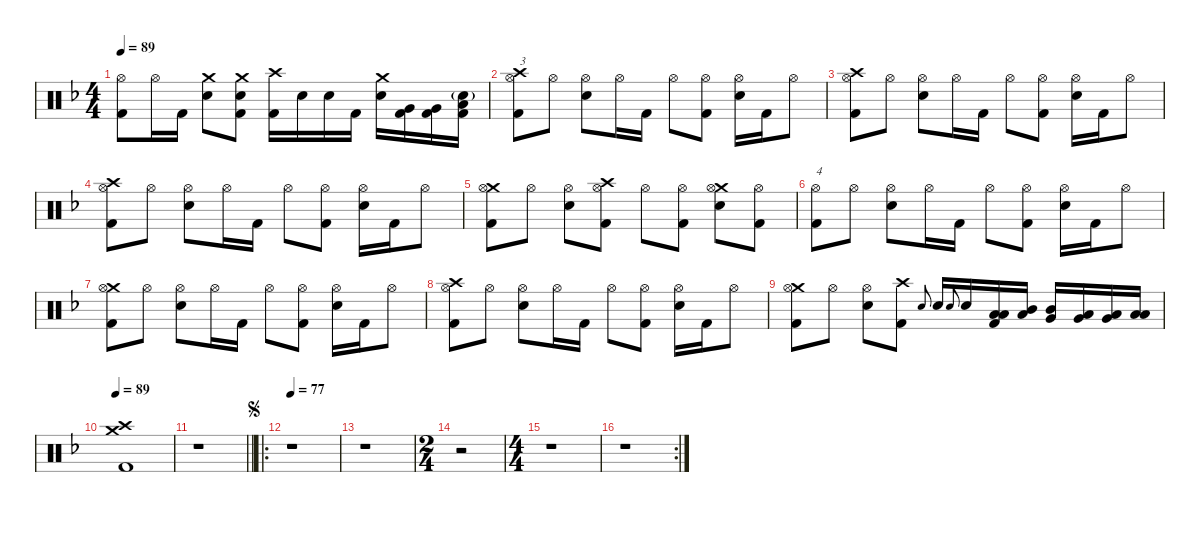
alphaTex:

\defaultSystemsLayout 4
\hideDynamics
\bracketExtendMode nobrackets
\singleTrackTrackNamePolicy hidden
\multiTrackTrackNamePolicy hidden
\firstSystemTrackNameMode fullname
\firstSystemTrackNameOrientation horizontal
\otherSystemsTrackNameOrientation horizontal
\track ("Martin Lopez - Drums" "drm.") {instrument percussion}
\staff {score}
\articulation defaults
\ts (4 4)
\tempo 89
\clef neutral
\ks f
("Hi-Hat (open)"{acc forcenatural} "Kick (hit) 2"{acc forcenatural}).8{dy f beam Down} "Hi-Hat (open)"{acc forcenatural}.16{beam Down} "Kick (hit) 2"{acc forcenatural}.16{beam Down} ("Crash medium (hit)"{acc forcenatural} "Snare (hit) 2"{acc forcenatural}).8{beam Down} ("Crash medium (hit)"{acc forcenatural} "Snare (hit) 2"{acc forcenatural} "Kick (hit) 2"{acc forcenatural}).8{beam Down} ("Crash high (hit)"{acc forcenatural} "Kick (hit) 2"{acc forcenatural}).16{beam Down} "Snare (hit) 2"{acc forcenatural}.16{beam Down} "Snare (hit) 2"{acc forcenatural}.16{beam Down} "Kick (hit) 2"{acc forcenatural}.16{beam Down} ("Crash medium (hit)"{acc forcenatural} "Snare (hit) 2"{acc forcenatural}).16{beam Down} ("Very Low Tom (hit)"{acc forcenatural} "Kick (hit) 2"{acc forcenatural}).16{beam Down} ("Very Low Tom (hit)"{acc forcenatural} "Kick (hit) 2"{acc forcenatural}).16{beam Down} ("Low Floor Tom (hit)"{acc forcenatural} "Snare (hit) 2"{g acc forcenatural} "Kick (hit) 2"{acc forcenatural}).16{beam Down} |
("Crash high (hit)"{acc forcenatural} "Hi-Hat (open)"{acc forcenatural} "Kick (hit) 2"{acc forcenatural}).8{txt "3" beam Down} "Hi-Hat (open)"{acc forcenatural}.8{beam Down} ("Hi-Hat (open)"{acc forcenatural} "Snare (hit) 2"{acc forcenatural}).8{beam Down} "Hi-Hat (open)"{acc forcenatural}.16{beam Down} "Kick (hit) 2"{acc forcenatural}.16{beam Down} "Hi-Hat (open)"{acc forcenatural}.8{beam Down} ("Hi-Hat (open)"{acc forcenatural} "Kick (hit) 2"{acc forcenatural}).8{beam Down} ("Hi-Hat (open)"{acc forcenatural} "Snare (hit) 2"{acc forcenatural}).16{beam Down} "Kick (hit) 2"{acc forcenatural}.16{beam Down} "Hi-Hat (open)"{acc forcenatural}.8{beam Down} |
("Crash high (hit)"{acc forcenatural} "Hi-Hat (open)"{acc forcenatural} "Kick (hit) 2"{acc forcenatural}).8{beam Down} "Hi-Hat (open)"{acc forcenatural}.8{beam Down} ("Hi-Hat (open)"{acc forcenatural} "Snare (hit) 2"{acc forcenatural}).8{beam Down} "Hi-Hat (open)"{acc forcenatural}.16{beam Down} "Kick (hit) 2"{acc forcenatural}.16{beam Down} "Hi-Hat (open)"{acc forcenatural}.8{beam Down} ("Hi-Hat (open)"{acc forcenatural} "Kick (hit) 2"{acc forcenatural}).8{beam Down} ("Hi-Hat (open)"{acc forcenatural} "Snare (hit) 2"{acc forcenatural}).16{beam Down} "Kick (hit) 2"{acc forcenatural}.16{beam Down} "Hi-Hat (open)"{acc forcenatural}.8{beam Down} |
("Crash high (hit)"{acc forcenatural} "Hi-Hat (open)"{acc forcenatural} "Kick (hit) 2"{acc forcenatural}).8{beam Down} "Hi-Hat (open)"{acc forcenatural}.8{beam Down} ("Hi-Hat (open)"{acc forcenatural} "Snare (hit) 2"{acc forcenatural}).8{beam Down} "Hi-Hat (open)"{acc forcenatural}.16{beam Down} "Kick (hit) 2"{acc forcenatural}.16{beam Down} "Hi-Hat (open)"{acc forcenatural}.8{beam Down} ("Hi-Hat (open)"{acc forcenatural} "Kick (hit) 2"{acc forcenatural}).8{beam Down} ("Hi-Hat (open)"{acc forcenatural} "Snare (hit) 2"{acc forcenatural}).16{beam Down} "Kick (hit) 2"{acc forcenatural}.16{beam Down} "Hi-Hat (open)"{acc forcenatural}.8{beam Down} |
("Crash medium (hit)"{acc forcenatural} "Hi-Hat (open)"{acc forcenatural} "Kick (hit) 2"{acc forcenatural}).8{beam Down} "Hi-Hat (open)"{acc forcenatural}.8{beam Down} ("Hi-Hat (open)"{acc forcenatural} "Snare (hit) 2"{acc forcenatural}).8{beam Down} ("Crash high (hit)"{acc forcenatural} "Hi-Hat (open)"{acc forcenatural} "Kick (hit) 2"{acc forcenatural}).8{beam Down} "Hi-Hat (open)"{acc forcenatural}.8{beam Down} ("Hi-Hat (open)"{acc forcenatural} "Kick (hit) 2"{acc forcenatural}).8{beam Down} ("Crash medium (hit)"{acc forcenatural} "Hi-Hat (open)"{acc forcenatural} "Snare (hit) 2"{acc forcenatural}).8{beam Down} ("Hi-Hat (open)"{acc forcenatural} "Kick (hit) 2"{acc forcenatural}).8{beam Down} |
("Hi-Hat (open)"{acc forcenatural} "Kick (hit) 2"{acc forcenatural}).8{txt "4" beam Down} "Hi-Hat (open)"{acc forcenatural}.8{beam Down} ("Hi-Hat (open)"{acc forcenatural} "Snare (hit) 2"{acc forcenatural}).8{beam Down} "Hi-Hat (open)"{acc forcenatural}.16{beam Down} "Kick (hit) 2"{acc forcenatural}.16{beam Down} "Hi-Hat (open)"{acc forcenatural}.8{beam Down} ("Hi-Hat (open)"{acc forcenatural} "Kick (hit) 2"{acc forcenatural}).8{beam Down} ("Hi-Hat (open)"{acc forcenatural} "Snare (hit) 2"{acc forcenatural}).16{beam Down} "Kick (hit) 2"{acc forcenatural}.16{beam Down} "Hi-Hat (open)"{acc forcenatural}.8{beam Down} |
("Crash medium (hit)"{acc forcenatural} "Hi-Hat (open)"{acc forcenatural} "Kick (hit) 2"{acc forcenatural}).8{beam Down} "Hi-Hat (open)"{acc forcenatural}.8{beam Down} ("Hi-Hat (open)"{acc forcenatural} "Snare (hit) 2"{acc forcenatural}).8{beam Down} "Hi-Hat (open)"{acc forcenatural}.16{beam Down} "Kick (hit) 2"{acc forcenatural}.16{beam Down} "Hi-Hat (open)"{acc forcenatural}.8{beam Down} ("Hi-Hat (open)"{acc forcenatural} "Kick (hit) 2"{acc forcenatural}).8{beam Down} ("Hi-Hat (open)"{acc forcenatural} "Snare (hit) 2"{acc forcenatural}).16{beam Down} "Kick (hit) 2"{acc forcenatural}.16{beam Down} "Hi-Hat (open)"{acc forcenatural}.8{beam Down} |
("Crash high (hit)"{acc forcenatural} "Hi-Hat (open)"{acc forcenatural} "Kick (hit) 2"{acc forcenatural}).8{beam Down} "Hi-Hat (open)"{acc forcenatural}.8{beam Down} ("Hi-Hat (open)"{acc forcenatural} "Snare (hit) 2"{acc forcenatural}).8{beam Down} "Hi-Hat (open)"{acc forcenatural}.16{beam Down} "Kick (hit) 2"{acc forcenatural}.16{beam Down} "Hi-Hat (open)"{acc forcenatural}.8{beam Down} ("Hi-Hat (open)"{acc forcenatural} "Kick (hit) 2"{acc forcenatural}).8{beam Down} ("Hi-Hat (open)"{acc forcenatural} "Snare (hit) 2"{acc forcenatural}).16{beam Down} "Kick (hit) 2"{acc forcenatural}.16{beam Down} "Hi-Hat (open)"{acc forcenatural}.8{beam Down} |
("Crash medium (hit)"{acc forcenatural} "Hi-Hat (open)"{acc forcenatural} "Kick (hit) 2"{acc forcenatural}).8{beam Down} "Hi-Hat (open)"{acc forcenatural}.8{beam Down} ("Hi-Hat (open)"{acc forcenatural} "Snare (hit) 2"{acc forcenatural}).8{beam Down} ("Crash high (hit)"{acc forcenatural} "Kick (hit) 2"{acc forcenatural}).8{beam Down} "Electric Snare (hit)"{acc forcenatural}.8{gr onbeat dy mf beam Up} "Snare (hit) 2"{acc forcenatural}.16{dy f beam Up} "Electric Snare (hit)"{acc forcenatural}.8{gr onbeat dy mf beam Up} "Snare (hit) 2"{acc forcenatural}.16{dy f beam Up} ("Low Tom (hit)"{acc forcenatural} "Low Tom (hit)"{acc forcenatural} "Kick (hit) 2"{acc forcenatural}).16{beam Up} ("Mid Tom (hit)"{acc forcenatural} "Low Tom (hit)"{acc forcenatural}).16{beam Up} ("Mid Tom (hit)"{acc forcenatural} "Very Low Tom (hit)"{acc forcenatural}).16{beam Up} ("Low Tom (hit)"{acc forcenatural} "Very Low Tom (hit)"{acc forcenatural}).16{beam Up} ("Very Low Tom (hit)"{acc forcenatural} "Low Floor Tom (hit)"{acc forcenatural}).16{beam Up} ("Low Floor Tom (hit)"{acc forcenatural} "Low Floor Tom (hit)"{acc forcenatural}).16{beam Up} |
\tempo 89
("Crash medium (hit)"{acc forcenatural} "Crash high (hit)"{acc forcenatural} "Kick (hit) 2"{acc forcenatural}).1{beam Down} |
\barLineRight lightlight
r.1{beam Down} |
\ro
\jump segno
\tempo 77
r.1{beam Down} |
r.1{beam Down} |
\ts (2 4)
\beaming (8 2 2 2 2)
r.2{beam Down} |
\ts (4 4)
\beaming (8 2 2 2 2)
r.1{beam Down} |
\rc 2
r.1{beam Down}
